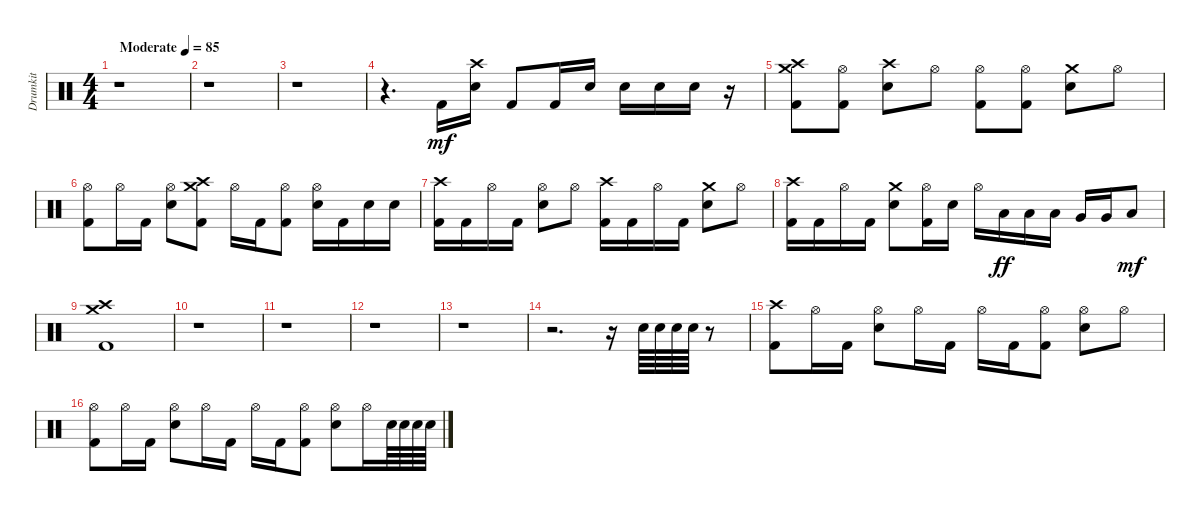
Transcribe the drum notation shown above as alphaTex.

\track ("Drumkit" "Drumkit") {instrument percussion}
\staff {score}
\articulation defaults
\ts (4 4)
\tempo (85 "Moderate")
\clef neutral
\ks c
r.1{dy mf} |
r.1 |
r.1 |
r.4{d} "Kick (hit) 2".16 ("Snare (hit) 2" "Crash high (hit)").16 "Kick (hit) 2".8 "Kick (hit) 2".16 "Snare (hit) 2".16 "Snare (hit) 2".16 "Snare (hit) 2".16 "Snare (hit) 2".16 r.16 |
("Kick (hit) 2" "Crash high (hit)" "Crash medium (hit)").8 ("Kick (hit) 2" "Hi-Hat (open)").8 ("Snare (hit) 2" "Crash high (hit)").8 "Hi-Hat (open)".8 ("Kick (hit) 2" "Hi-Hat (open)").8 ("Kick (hit) 2" "Hi-Hat (open)").8 ("Snare (hit) 2" "Crash medium (hit)").8 "Hi-Hat (open)".8 |
("Kick (hit) 2" "Hi-Hat (open)").8 "Hi-Hat (open)".16 "Kick (hit) 2".16 ("Snare (hit) 2" "Hi-Hat (open)").8 ("Kick (hit) 2" "Crash high (hit)" "Crash medium (hit)").8 "Hi-Hat (open)".16 "Kick (hit) 2".16 ("Kick (hit) 2" "Hi-Hat (open)").8 ("Snare (hit) 2" "Hi-Hat (open)").16 "Kick (hit) 2".16 "Snare (hit) 2".16 "Snare (hit) 2".16 |
("Crash high (hit)" "Kick (hit) 2").16 "Kick (hit) 2".16 "Hi-Hat (open)".16 "Kick (hit) 2".16 ("Snare (hit) 2" "Hi-Hat (open)").8 "Hi-Hat (open)".8 ("Crash high (hit)" "Kick (hit) 2").16 "Kick (hit) 2".16 "Hi-Hat (open)".16 "Kick (hit) 2".16 ("Snare (hit) 2" "Crash medium (hit)").8 "Hi-Hat (open)".8 |
("Crash high (hit)" "Kick (hit) 2").16 "Kick (hit) 2".16 "Hi-Hat (open)".16 "Kick (hit) 2".16 ("Snare (hit) 2" "Crash medium (hit)").8 ("Hi-Hat (open)" "Kick (hit) 2").16 "Snare (hit) 2".16 "Hi-Hat (open)".16 "Low Tom (hit)".16{dy ff} "Low Tom (hit)".16 "Low Tom (hit)".16 "Very Low Tom (hit)".16 "Very Low Tom (hit)".16 "Low Floor Tom (hit)".8{dy mf} |
("Kick (hit) 2" "Crash medium (hit)" "Crash high (hit)").1 |
r.1 |
r.1 |
r.1 |
r.1 |
r.2{d} r.16 "Snare (hit) 2".64 "Snare (hit) 2".64 "Snare (hit) 2".64 "Snare (hit) 2".64 r.8 |
("Crash high (hit)" "Kick (hit) 2").8 "Hi-Hat (open)".16 "Kick (hit) 2".16 ("Snare (hit) 2" "Hi-Hat (open)").8 "Hi-Hat (open)".16 "Kick (hit) 2".16 "Hi-Hat (open)".16 "Kick (hit) 2".16 ("Kick (hit) 2" "Hi-Hat (open)").8 ("Snare (hit) 2" "Hi-Hat (open)").8 "Hi-Hat (open)".8 |
("Hi-Hat (open)" "Kick (hit) 2").8 "Hi-Hat (open)".16 "Kick (hit) 2".16 ("Snare (hit) 2" "Hi-Hat (open)").8 "Hi-Hat (open)".16 "Kick (hit) 2".16 "Hi-Hat (open)".16 "Kick (hit) 2".16 ("Kick (hit) 2" "Hi-Hat (open)").8 ("Snare (hit) 2" "Hi-Hat (open)").8 "Hi-Hat (open)".16 "Snare (hit) 2".64 "Snare (hit) 2".64 "Snare (hit) 2".64 "Snare (hit) 2".64
